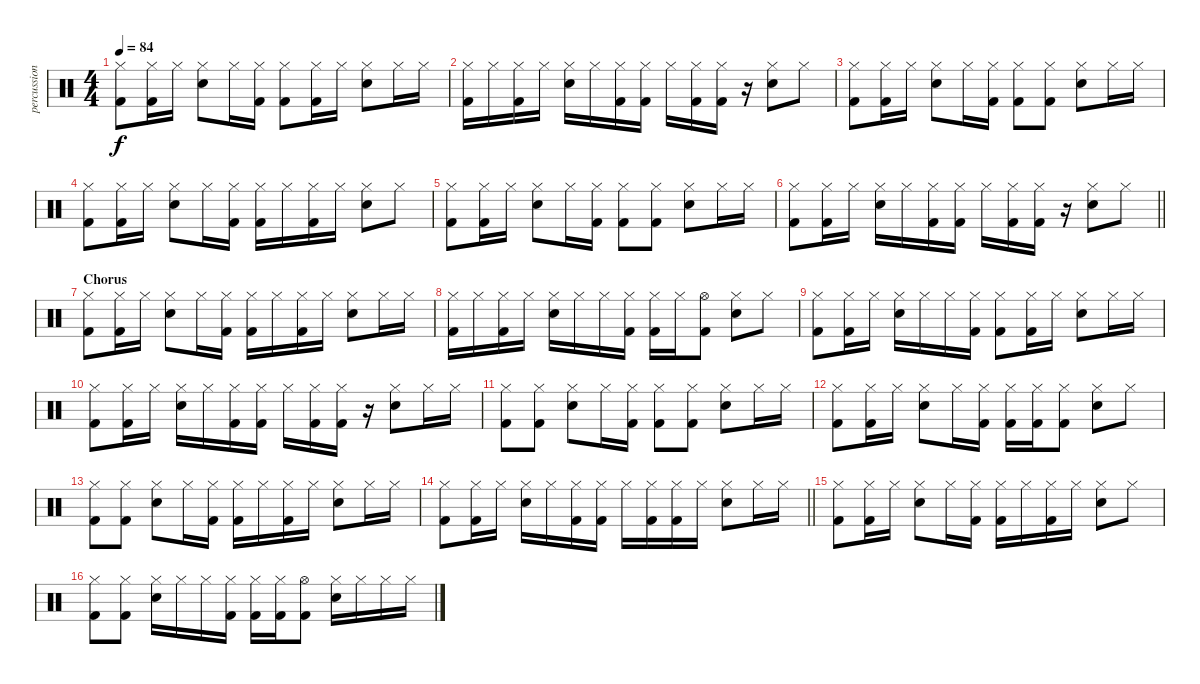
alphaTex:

\track ("percussion" "percussion") {instrument percussion}
\staff {score}
\articulation defaults
\ts (4 4)
\tempo 84
\clef neutral
\ks c
("Hi-Hat (closed)" "Kick (hit) 2").8{dy f} ("Hi-Hat (closed)" "Kick (hit) 2").16 "Hi-Hat (closed)".16 ("Snare (hit) 2" "Hi-Hat (closed)").8 "Hi-Hat (closed)".16 ("Hi-Hat (closed)" "Kick (hit) 2").16 ("Hi-Hat (closed)" "Kick (hit) 2").8 ("Hi-Hat (closed)" "Kick (hit) 2").16 "Hi-Hat (closed)".16 ("Snare (hit) 2" "Hi-Hat (closed)").8 "Hi-Hat (closed)".16 "Hi-Hat (closed)".16 |
("Hi-Hat (closed)" "Kick (hit) 2").16 "Hi-Hat (closed)".16 ("Hi-Hat (closed)" "Kick (hit) 2").16 "Hi-Hat (closed)".16 ("Snare (hit) 2" "Hi-Hat (closed)").16 "Hi-Hat (closed)".16 ("Hi-Hat (closed)" "Kick (hit) 2").16 ("Hi-Hat (closed)" "Kick (hit) 2").16 "Hi-Hat (closed)".16 ("Hi-Hat (closed)" "Kick (hit) 2").16 ("Hi-Hat (closed)" "Kick (hit) 2").16 r.16 ("Snare (hit) 2" "Hi-Hat (closed)").8 "Hi-Hat (closed)".8 |
("Hi-Hat (closed)" "Kick (hit) 2").8 ("Hi-Hat (closed)" "Kick (hit) 2").16 "Hi-Hat (closed)".16 ("Snare (hit) 2" "Hi-Hat (closed)").8 "Hi-Hat (closed)".16 ("Hi-Hat (closed)" "Kick (hit) 2").16 ("Hi-Hat (closed)" "Kick (hit) 2").8 ("Hi-Hat (closed)" "Kick (hit) 2").8 ("Snare (hit) 2" "Hi-Hat (closed)").8 "Hi-Hat (closed)".16 "Hi-Hat (closed)".16 |
("Hi-Hat (closed)" "Kick (hit) 2").8 ("Hi-Hat (closed)" "Kick (hit) 2").16 "Hi-Hat (closed)".16 ("Snare (hit) 2" "Hi-Hat (closed)").8 "Hi-Hat (closed)".16 ("Hi-Hat (closed)" "Kick (hit) 2").16 ("Hi-Hat (closed)" "Kick (hit) 2").16 "Hi-Hat (closed)".16 ("Hi-Hat (closed)" "Kick (hit) 2").16 "Hi-Hat (closed)".16 ("Snare (hit) 2" "Hi-Hat (closed)").8 "Hi-Hat (closed)".8 |
("Hi-Hat (closed)" "Kick (hit) 2").8 ("Hi-Hat (closed)" "Kick (hit) 2").16 "Hi-Hat (closed)".16 ("Snare (hit) 2" "Hi-Hat (closed)").8 "Hi-Hat (closed)".16 ("Hi-Hat (closed)" "Kick (hit) 2").16 ("Hi-Hat (closed)" "Kick (hit) 2").8 ("Hi-Hat (closed)" "Kick (hit) 2").8 ("Snare (hit) 2" "Hi-Hat (closed)").8 "Hi-Hat (closed)".16 "Hi-Hat (closed)".16 |
\barLineRight lightlight
("Hi-Hat (closed)" "Kick (hit) 2").8 ("Hi-Hat (closed)" "Kick (hit) 2").16 "Hi-Hat (closed)".16 ("Snare (hit) 2" "Hi-Hat (closed)").16 "Hi-Hat (closed)".16 ("Hi-Hat (closed)" "Kick (hit) 2").16 ("Hi-Hat (closed)" "Kick (hit) 2").16 "Hi-Hat (closed)".16 ("Hi-Hat (closed)" "Kick (hit) 2").16 ("Hi-Hat (closed)" "Kick (hit) 2").16 r.16 ("Snare (hit) 2" "Hi-Hat (closed)").8 "Hi-Hat (closed)".8 |
\section ("" "Chorus")
("Hi-Hat (closed)" "Kick (hit) 2").8 ("Hi-Hat (closed)" "Kick (hit) 2").16 "Hi-Hat (closed)".16 ("Snare (hit) 2" "Hi-Hat (closed)").8 "Hi-Hat (closed)".16 ("Hi-Hat (closed)" "Kick (hit) 2").16 ("Hi-Hat (closed)" "Kick (hit) 2").16 "Hi-Hat (closed)".16 ("Hi-Hat (closed)" "Kick (hit) 2").16 "Hi-Hat (closed)".16 ("Snare (hit) 2" "Hi-Hat (closed)").8 "Hi-Hat (closed)".16 "Hi-Hat (closed)".16 |
("Hi-Hat (closed)" "Kick (hit) 2").16 "Hi-Hat (closed)".16 ("Hi-Hat (closed)" "Kick (hit) 2").16 "Hi-Hat (closed)".16 ("Snare (hit) 2" "Hi-Hat (closed)").16 "Hi-Hat (closed)".16 "Hi-Hat (closed)".16 ("Hi-Hat (closed)" "Kick (hit) 2").16 ("Hi-Hat (closed)" "Kick (hit) 2").16 "Hi-Hat (closed)".16 ("Hi-Hat (open)" "Kick (hit) 2").8 ("Snare (hit) 2" "Hi-Hat (closed)").8 "Hi-Hat (closed)".8 |
("Hi-Hat (closed)" "Kick (hit) 2").8 ("Hi-Hat (closed)" "Kick (hit) 2").16 "Hi-Hat (closed)".16 ("Snare (hit) 2" "Hi-Hat (closed)").16 "Hi-Hat (closed)".16 "Hi-Hat (closed)".16 ("Hi-Hat (closed)" "Kick (hit) 2").16 ("Hi-Hat (closed)" "Kick (hit) 2").8 ("Hi-Hat (closed)" "Kick (hit) 2").16 "Hi-Hat (closed)".16 ("Snare (hit) 2" "Hi-Hat (closed)").8 "Hi-Hat (closed)".16 "Hi-Hat (closed)".16 |
("Hi-Hat (closed)" "Kick (hit) 2").8 ("Hi-Hat (closed)" "Kick (hit) 2").16 "Hi-Hat (closed)".16 ("Snare (hit) 2" "Hi-Hat (closed)").16 "Hi-Hat (closed)".16 ("Hi-Hat (closed)" "Kick (hit) 2").16 ("Hi-Hat (closed)" "Kick (hit) 2").16 "Hi-Hat (closed)".16 ("Hi-Hat (closed)" "Kick (hit) 2").16 ("Hi-Hat (closed)" "Kick (hit) 2").16 r.16 ("Snare (hit) 2" "Hi-Hat (closed)").8 "Hi-Hat (closed)".16 "Hi-Hat (closed)".16 |
("Hi-Hat (closed)" "Kick (hit) 2").8 ("Hi-Hat (closed)" "Kick (hit) 2").8 ("Snare (hit) 2" "Hi-Hat (closed)").8 "Hi-Hat (closed)".16 ("Hi-Hat (closed)" "Kick (hit) 2").16 ("Hi-Hat (closed)" "Kick (hit) 2").8 ("Hi-Hat (closed)" "Kick (hit) 2").8 ("Snare (hit) 2" "Hi-Hat (closed)").8 "Hi-Hat (closed)".16 "Hi-Hat (closed)".16 |
("Hi-Hat (closed)" "Kick (hit) 2").8 ("Hi-Hat (closed)" "Kick (hit) 2").16 "Hi-Hat (closed)".16 ("Snare (hit) 2" "Hi-Hat (closed)").8 "Hi-Hat (closed)".16 ("Hi-Hat (closed)" "Kick (hit) 2").16 ("Hi-Hat (closed)" "Kick (hit) 2").16 ("Hi-Hat (closed)" "Kick (hit) 2").16 ("Hi-Hat (closed)" "Kick (hit) 2").8 ("Snare (hit) 2" "Hi-Hat (closed)").8 "Hi-Hat (closed)".8 |
("Hi-Hat (closed)" "Kick (hit) 2").8 ("Hi-Hat (closed)" "Kick (hit) 2").8 ("Snare (hit) 2" "Hi-Hat (closed)").8 "Hi-Hat (closed)".16 ("Hi-Hat (closed)" "Kick (hit) 2").16 ("Hi-Hat (closed)" "Kick (hit) 2").16 "Hi-Hat (closed)".16 ("Hi-Hat (closed)" "Kick (hit) 2").16 "Hi-Hat (closed)".16 ("Snare (hit) 2" "Hi-Hat (closed)").8 "Hi-Hat (closed)".16 "Hi-Hat (closed)".16 |
\barLineRight lightlight
("Hi-Hat (closed)" "Kick (hit) 2").8 ("Hi-Hat (closed)" "Kick (hit) 2").16 "Hi-Hat (closed)".16 ("Snare (hit) 2" "Hi-Hat (closed)").16 "Hi-Hat (closed)".16 ("Hi-Hat (closed)" "Kick (hit) 2").16 ("Hi-Hat (closed)" "Kick (hit) 2").16 "Hi-Hat (closed)".16 ("Hi-Hat (closed)" "Kick (hit) 2").16 ("Hi-Hat (closed)" "Kick (hit) 2").16 "Hi-Hat (closed)".16 ("Snare (hit) 2" "Hi-Hat (closed)").8 "Hi-Hat (closed)".16 "Hi-Hat (closed)".16 |
("Hi-Hat (closed)" "Kick (hit) 2").8 ("Hi-Hat (closed)" "Kick (hit) 2").16 "Hi-Hat (closed)".16 ("Snare (hit) 2" "Hi-Hat (closed)").8 "Hi-Hat (closed)".16 ("Hi-Hat (closed)" "Kick (hit) 2").16 ("Hi-Hat (closed)" "Kick (hit) 2").16 "Hi-Hat (closed)".16 ("Hi-Hat (closed)" "Kick (hit) 2").16 "Hi-Hat (closed)".16 ("Snare (hit) 2" "Hi-Hat (closed)").8 "Hi-Hat (closed)".8 |
("Hi-Hat (closed)" "Kick (hit) 2").8 ("Hi-Hat (closed)" "Kick (hit) 2").8 ("Snare (hit) 2" "Hi-Hat (closed)").16 "Hi-Hat (closed)".16 "Hi-Hat (closed)".16 ("Hi-Hat (closed)" "Kick (hit) 2").16 ("Hi-Hat (closed)" "Kick (hit) 2").16 ("Hi-Hat (closed)" "Kick (hit) 2").16 ("Hi-Hat (open)" "Kick (hit) 2").8 ("Snare (hit) 2" "Hi-Hat (closed)").16 "Hi-Hat (closed)".16 "Hi-Hat (closed)".16 "Hi-Hat (closed)".16
